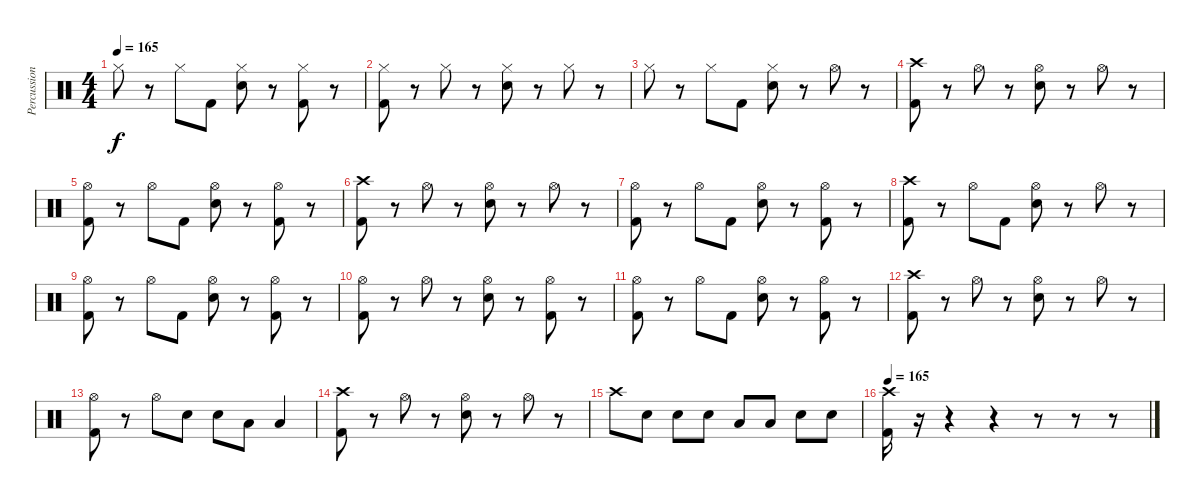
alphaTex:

\track ("Percussion" "Percussion") {instrument percussion}
\staff {score}
\articulation defaults
\ts (4 4)
\tempo 165
\clef neutral
\ks c "Hi-Hat (closed)".8{dy f}
r.8 "Hi-Hat (closed)".8 "Kick (hit) 2".8 ("Hi-Hat (closed)" "Electric Snare (hit)").8 r.8 ("Hi-Hat (closed)" "Kick (hit) 2").8 r.8 |
("Hi-Hat (closed)" "Kick (hit) 2").8 r.8 "Hi-Hat (closed)".8 r.8 ("Hi-Hat (closed)" "Electric Snare (hit)").8 r.8 "Hi-Hat (closed)".8 r.8 |
"Hi-Hat (closed)".8 r.8 "Hi-Hat (closed)".8 "Kick (hit) 2".8 ("Hi-Hat (closed)" "Electric Snare (hit)").8 r.8 "Hi-Hat (open)".8 r.8 |
("Crash high (hit)" "Kick (hit) 2").8 r.8 "Hi-Hat (open)".8 r.8 ("Hi-Hat (open)" "Electric Snare (hit)").8 r.8 "Hi-Hat (open)".8 r.8 |
("Hi-Hat (open)" "Kick (hit) 2").8 r.8 "Hi-Hat (open)".8 "Kick (hit) 2".8 ("Hi-Hat (open)" "Electric Snare (hit)").8 r.8 ("Hi-Hat (open)" "Kick (hit) 2").8 r.8 |
("Crash high (hit)" "Kick (hit) 2").8 r.8 "Hi-Hat (open)".8 r.8 ("Hi-Hat (open)" "Electric Snare (hit)").8 r.8 "Hi-Hat (open)".8 r.8 |
("Hi-Hat (open)" "Kick (hit) 2").8 r.8 "Hi-Hat (open)".8 "Kick (hit) 2".8 ("Hi-Hat (open)" "Electric Snare (hit)").8 r.8 ("Hi-Hat (open)" "Kick (hit) 2").8 r.8 |
("Crash high (hit)" "Kick (hit) 2").8 r.8 "Hi-Hat (open)".8 "Kick (hit) 2".8 ("Hi-Hat (open)" "Electric Snare (hit)").8 r.8 "Hi-Hat (open)".8 r.8 |
("Hi-Hat (open)" "Kick (hit) 2").8 r.8 "Hi-Hat (open)".8 "Kick (hit) 2".8 ("Hi-Hat (open)" "Electric Snare (hit)").8 r.8 ("Hi-Hat (open)" "Kick (hit) 2").8 r.8 |
("Hi-Hat (open)" "Kick (hit) 2").8 r.8 "Hi-Hat (open)".8 r.8 ("Hi-Hat (open)" "Electric Snare (hit)").8 r.8 ("Hi-Hat (open)" "Kick (hit) 2").8 r.8 |
("Hi-Hat (open)" "Kick (hit) 2").8 r.8 "Hi-Hat (open)".8 "Kick (hit) 2".8 ("Hi-Hat (open)" "Electric Snare (hit)").8 r.8 ("Hi-Hat (open)" "Kick (hit) 2").8 r.8 |
("Crash high (hit)" "Kick (hit) 2").8 r.8 "Hi-Hat (open)".8 r.8 ("Hi-Hat (open)" "Electric Snare (hit)").8 r.8 "Hi-Hat (open)".8 r.8 |
("Hi-Hat (open)" "Kick (hit) 2").8 r.8 "Hi-Hat (open)".8 "Electric Snare (hit)".8 "Electric Snare (hit)".8 "Low Tom (hit)".8 "Low Tom (hit)".4 |
("Crash high (hit)" "Kick (hit) 2").8 r.8 "Hi-Hat (open)".8 r.8 ("Hi-Hat (open)" "Electric Snare (hit)").8 r.8 "Hi-Hat (open)".8 r.8 |
"Crash high (hit)".8 "Electric Snare (hit)".8 "Electric Snare (hit)".8 "Electric Snare (hit)".8 "Low Tom (hit)".8 "Low Tom (hit)".8 "Electric Snare (hit)".8 "Electric Snare (hit)".8 |
\tempo 165
("Crash high (hit)" "Kick (hit) 2").16 r.16 r.4 r.4 r.8 r.8 r.8
